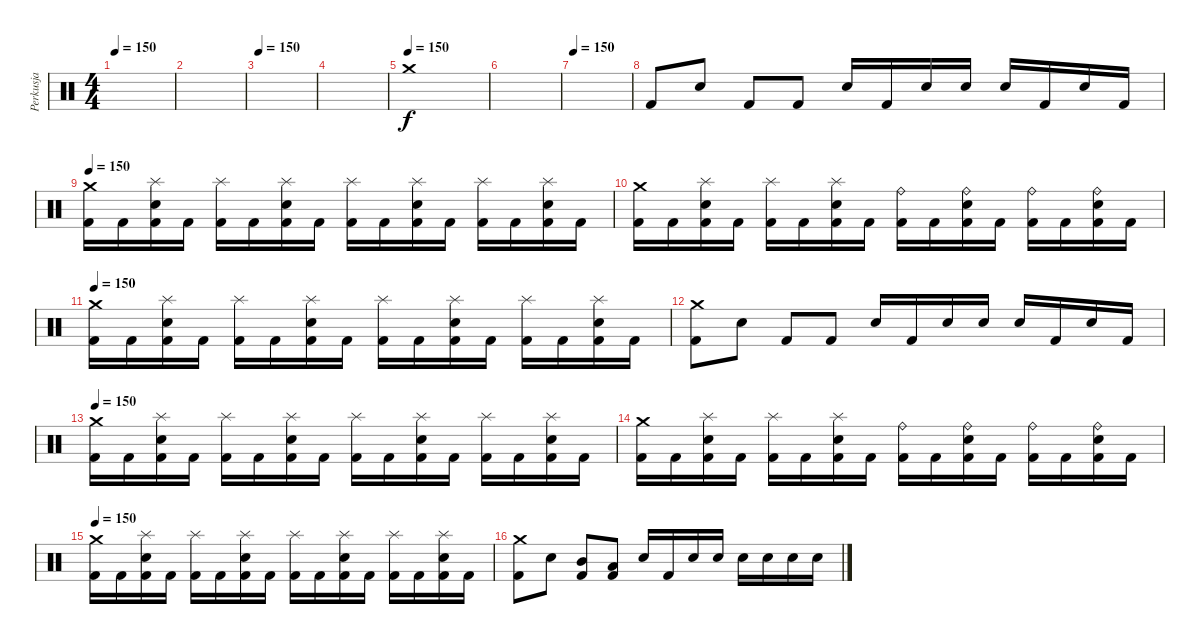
\track ("Perkusja" "Perkusja") {instrument percussion}
\staff {score}
\articulation defaults
\ts (4 4)
\tempo 150
\clef neutral
\ks c
|
|
\tempo 150
|
|
\tempo (150)
"Crash medium (hit)".1 |
|
\tempo 150
|
"Kick (hit) 2".8 "Electric Snare (hit)".8 "Kick (hit) 2".8 "Kick (hit) 2".8 "Electric Snare (hit)".16 "Kick (hit) 2".16 "Electric Snare (hit)".16 "Electric Snare (hit)".16 "Electric Snare (hit)".16 "Kick (hit) 2".16 "Electric Snare (hit)".16 "Kick (hit) 2".16 |
\tempo 150
("Crash medium (hit)" "Kick (hit) 2").16 "Kick (hit) 2".16 ("Splash (hit)" "Electric Snare (hit)" "Kick (hit) 2").16 "Kick (hit) 2".16 ("Splash (hit)" "Kick (hit) 2").16 "Kick (hit) 2".16 ("Splash (hit)" "Electric Snare (hit)" "Kick (hit) 2").16 "Kick (hit) 2".16 ("Splash (hit)" "Kick (hit) 2").16 "Kick (hit) 2".16 ("Splash (hit)" "Electric Snare (hit)" "Kick (hit) 2").16 "Kick (hit) 2".16 ("Splash (hit)" "Kick (hit) 2").16 "Kick (hit) 2".16 ("Splash (hit)" "Electric Snare (hit)" "Kick (hit) 2").16 "Kick (hit) 2".16 |
("Crash medium (hit)" "Kick (hit) 2").16 "Kick (hit) 2".16 ("Splash (hit)" "Electric Snare (hit)" "Kick (hit) 2").16 "Kick (hit) 2".16 ("Splash (hit)" "Kick (hit) 2").16 "Kick (hit) 2".16 ("Splash (hit)" "Electric Snare (hit)" "Kick (hit) 2").16 "Kick (hit) 2".16 ("Ride (bell)" "Kick (hit) 2").16 "Kick (hit) 2".16 ("Ride (bell)" "Electric Snare (hit)" "Kick (hit) 2").16 "Kick (hit) 2".16 ("Ride (bell)" "Kick (hit) 2").16 "Kick (hit) 2".16 ("Ride (bell)" "Electric Snare (hit)" "Kick (hit) 2").16 "Kick (hit) 2".16 |
\tempo 150
("Crash medium (hit)" "Kick (hit) 2").16 "Kick (hit) 2".16 ("Splash (hit)" "Electric Snare (hit)" "Kick (hit) 2").16 "Kick (hit) 2".16 ("Splash (hit)" "Kick (hit) 2").16 "Kick (hit) 2".16 ("Splash (hit)" "Electric Snare (hit)" "Kick (hit) 2").16 "Kick (hit) 2".16 ("Splash (hit)" "Kick (hit) 2").16 "Kick (hit) 2".16 ("Splash (hit)" "Electric Snare (hit)" "Kick (hit) 2").16 "Kick (hit) 2".16 ("Splash (hit)" "Kick (hit) 2").16 "Kick (hit) 2".16 ("Splash (hit)" "Electric Snare (hit)" "Kick (hit) 2").16 "Kick (hit) 2".16 |
("Crash medium (hit)" "Kick (hit) 2").8 "Electric Snare (hit)".8 "Kick (hit) 2".8 "Kick (hit) 2".8 "Electric Snare (hit)".16 "Kick (hit) 2".16 "Electric Snare (hit)".16 "Electric Snare (hit)".16 "Electric Snare (hit)".16 "Kick (hit) 2".16 "Electric Snare (hit)".16 "Kick (hit) 2".16 |
\tempo 150
("Crash medium (hit)" "Kick (hit) 2").16 "Kick (hit) 2".16 ("Splash (hit)" "Electric Snare (hit)" "Kick (hit) 2").16 "Kick (hit) 2".16 ("Splash (hit)" "Kick (hit) 2").16 "Kick (hit) 2".16 ("Splash (hit)" "Electric Snare (hit)" "Kick (hit) 2").16 "Kick (hit) 2".16 ("Splash (hit)" "Kick (hit) 2").16 "Kick (hit) 2".16 ("Splash (hit)" "Electric Snare (hit)" "Kick (hit) 2").16 "Kick (hit) 2".16 ("Splash (hit)" "Kick (hit) 2").16 "Kick (hit) 2".16 ("Splash (hit)" "Electric Snare (hit)" "Kick (hit) 2").16 "Kick (hit) 2".16 |
("Crash medium (hit)" "Kick (hit) 2").16 "Kick (hit) 2".16 ("Splash (hit)" "Electric Snare (hit)" "Kick (hit) 2").16 "Kick (hit) 2".16 ("Splash (hit)" "Kick (hit) 2").16 "Kick (hit) 2".16 ("Splash (hit)" "Electric Snare (hit)" "Kick (hit) 2").16 "Kick (hit) 2".16 ("Ride (bell)" "Kick (hit) 2").16 "Kick (hit) 2".16 ("Ride (bell)" "Electric Snare (hit)" "Kick (hit) 2").16 "Kick (hit) 2".16 ("Ride (bell)" "Kick (hit) 2").16 "Kick (hit) 2".16 ("Ride (bell)" "Electric Snare (hit)" "Kick (hit) 2").16 "Kick (hit) 2".16 |
\tempo 150
("Crash medium (hit)" "Kick (hit) 2").16 "Kick (hit) 2".16 ("Splash (hit)" "Electric Snare (hit)" "Kick (hit) 2").16 "Kick (hit) 2".16 ("Splash (hit)" "Kick (hit) 2").16 "Kick (hit) 2".16 ("Splash (hit)" "Electric Snare (hit)" "Kick (hit) 2").16 "Kick (hit) 2".16 ("Splash (hit)" "Kick (hit) 2").16 "Kick (hit) 2".16 ("Splash (hit)" "Electric Snare (hit)" "Kick (hit) 2").16 "Kick (hit) 2".16 ("Splash (hit)" "Kick (hit) 2").16 "Kick (hit) 2".16 ("Splash (hit)" "Electric Snare (hit)" "Kick (hit) 2").16 "Kick (hit) 2".16 |
("Crash medium (hit)" "Kick (hit) 2").8 "Electric Snare (hit)".8 ("Mid Tom (hit)" "Kick (hit) 2").8 ("Low Tom (hit)" "Kick (hit) 2").8 "Electric Snare (hit)".16 "Kick (hit) 2".16 "Electric Snare (hit)".16 "Electric Snare (hit)".16 "Electric Snare (hit)".16 "Electric Snare (hit)".16 "Electric Snare (hit)".16 "Electric Snare (hit)".16
